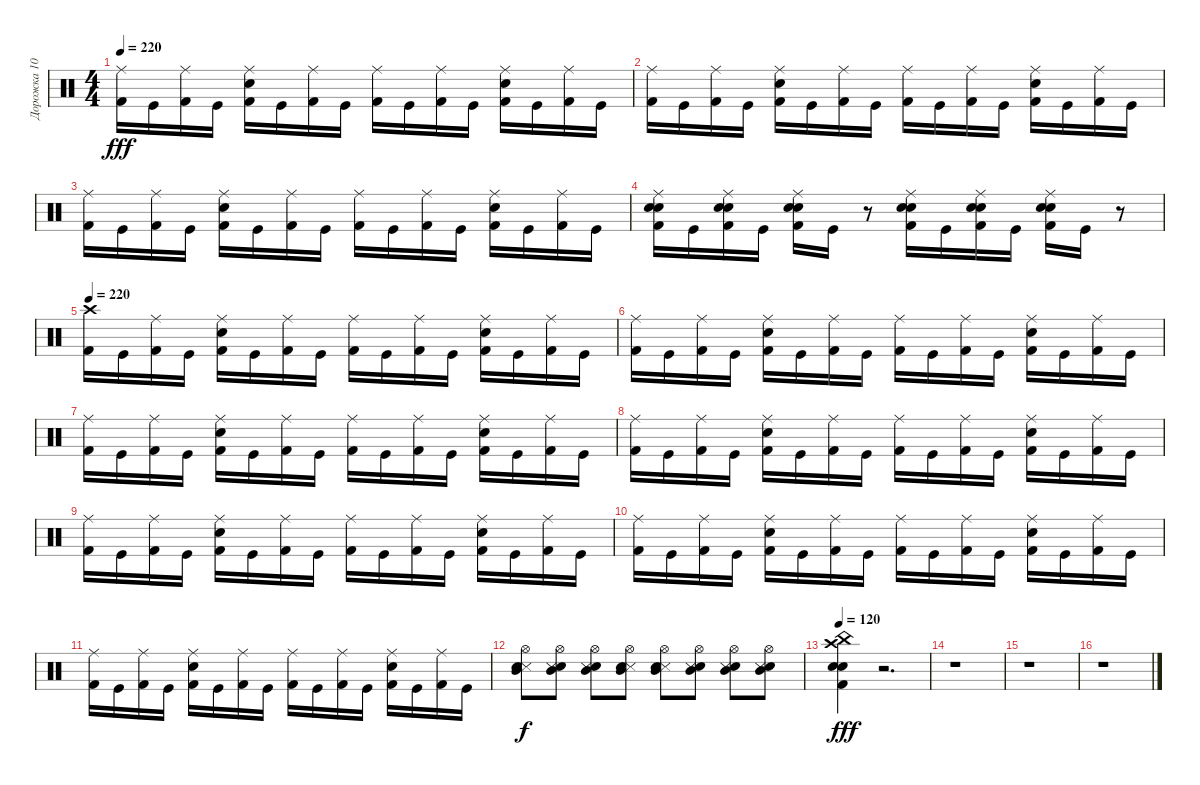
\track ("Дорожка 10" "Дорожка 10") {instrument percussion}
\staff {score}
\articulation defaults
\ts (4 4)
\tempo 220
\clef neutral
\ks c
("Ride (middle)" "Kick (hit) 2").16{dy fff} "Kick (hit)".16 ("Ride (middle)" "Kick (hit) 2").16 "Kick (hit)".16 ("Ride (middle)" "Snare (hit) 2" "Kick (hit) 2").16 "Kick (hit)".16 ("Kick (hit) 2" "Ride (middle)").16 "Kick (hit)".16 ("Kick (hit) 2" "Ride (middle)").16 "Kick (hit)".16 ("Ride (middle)" "Kick (hit) 2").16 "Kick (hit)".16 ("Ride (middle)" "Kick (hit) 2" "Snare (hit) 2").16 "Kick (hit)".16 ("Ride (middle)" "Kick (hit) 2").16 "Kick (hit)".16 |
("Ride (middle)" "Kick (hit) 2").16 "Kick (hit)".16 ("Ride (middle)" "Kick (hit) 2").16 "Kick (hit)".16 ("Snare (hit) 2" "Kick (hit) 2" "Ride (middle)").16 "Kick (hit)".16 ("Kick (hit) 2" "Ride (middle)").16 "Kick (hit)".16 ("Kick (hit) 2" "Ride (middle)").16 "Kick (hit)".16 ("Kick (hit) 2" "Ride (middle)").16 "Kick (hit)".16 ("Snare (hit) 2" "Ride (middle)" "Kick (hit) 2").16 "Kick (hit)".16 ("Ride (middle)" "Kick (hit) 2").16 "Kick (hit)".16 |
("Kick (hit) 2" "Ride (middle)").16 "Kick (hit)".16 ("Ride (middle)" "Kick (hit) 2").16 "Kick (hit)".16 ("Ride (middle)" "Kick (hit) 2" "Snare (hit) 2").16 "Kick (hit)".16 ("Kick (hit) 2" "Ride (middle)").16 "Kick (hit)".16 ("Kick (hit) 2" "Ride (middle)").16 "Kick (hit)".16 ("Kick (hit) 2" "Ride (middle)").16 "Kick (hit)".16 ("Ride (middle)" "Snare (hit) 2" "Kick (hit) 2").16 "Kick (hit)".16 ("Kick (hit) 2" "Ride (middle)").16 "Kick (hit)".16 |
("Ride (middle)" "Electric Snare (hit)" "Snare (hit) 2" "Kick (hit) 2").16 "Kick (hit)".16 ("Ride (middle)" "Snare (hit) 2" "Electric Snare (hit)" "Kick (hit) 2").16 "Kick (hit)".16 ("Ride (middle)" "Electric Snare (hit)" "Snare (hit) 2" "Kick (hit) 2").16 "Kick (hit)".16 r.8 ("Kick (hit) 2" "Electric Snare (hit)" "Snare (hit) 2" "Ride (middle)").16 "Kick (hit)".16 ("Ride (middle)" "Kick (hit) 2" "Electric Snare (hit)" "Snare (hit) 2").16 "Kick (hit)".16 ("Kick (hit) 2" "Snare (hit) 2" "Electric Snare (hit)" "Ride (middle)").16 "Kick (hit)".16 r.8 |
\tempo 220
("Crash high (hit)" "Kick (hit) 2").16 "Kick (hit)".16 ("Ride (middle)" "Kick (hit) 2").16 "Kick (hit)".16 ("Kick (hit) 2" "Snare (hit) 2" "Ride (middle)").16 "Kick (hit)".16 ("Kick (hit) 2" "Ride (middle)").16 "Kick (hit)".16 ("Ride (middle)" "Kick (hit) 2").16 "Kick (hit)".16 ("Ride (middle)" "Kick (hit) 2").16 "Kick (hit)".16 ("Kick (hit) 2" "Snare (hit) 2" "Ride (middle)").16 "Kick (hit)".16 ("Ride (middle)" "Kick (hit) 2").16 "Kick (hit)".16 |
("Kick (hit) 2" "Ride (middle)").16 "Kick (hit)".16 ("Ride (middle)" "Kick (hit) 2").16 "Kick (hit)".16 ("Kick (hit) 2" "Snare (hit) 2" "Ride (middle)").16 "Kick (hit)".16 ("Ride (middle)" "Kick (hit) 2").16 "Kick (hit)".16 ("Kick (hit) 2" "Ride (middle)").16 "Kick (hit)".16 ("Kick (hit) 2" "Ride (middle)").16 "Kick (hit)".16 ("Snare (hit) 2" "Ride (middle)" "Kick (hit) 2").16 "Kick (hit)".16 ("Kick (hit) 2" "Ride (middle)").16 "Kick (hit)".16 |
("Ride (middle)" "Kick (hit) 2").16 "Kick (hit)".16 ("Ride (middle)" "Kick (hit) 2").16 "Kick (hit)".16 ("Snare (hit) 2" "Kick (hit) 2" "Ride (middle)").16 "Kick (hit)".16 ("Kick (hit) 2" "Ride (middle)").16 "Kick (hit)".16 ("Ride (middle)" "Kick (hit) 2").16 "Kick (hit)".16 ("Kick (hit) 2" "Ride (middle)").16 "Kick (hit)".16 ("Kick (hit) 2" "Ride (middle)" "Snare (hit) 2").16 "Kick (hit)".16 ("Kick (hit) 2" "Ride (middle)").16 "Kick (hit)".16 |
("Ride (middle)" "Kick (hit) 2").16 "Kick (hit)".16 ("Kick (hit) 2" "Ride (middle)").16 "Kick (hit)".16 ("Snare (hit) 2" "Ride (middle)" "Kick (hit) 2").16 "Kick (hit)".16 ("Kick (hit) 2" "Ride (middle)").16 "Kick (hit)".16 ("Kick (hit) 2" "Ride (middle)").16 "Kick (hit)".16 ("Kick (hit) 2" "Ride (middle)").16 "Kick (hit)".16 ("Snare (hit) 2" "Ride (middle)" "Kick (hit) 2").16 "Kick (hit)".16 ("Kick (hit) 2" "Ride (middle)").16 "Kick (hit)".16 |
("Ride (middle)" "Kick (hit) 2").16 "Kick (hit)".16 ("Kick (hit) 2" "Ride (middle)").16 "Kick (hit)".16 ("Ride (middle)" "Kick (hit) 2" "Snare (hit) 2").16 "Kick (hit)".16 ("Ride (middle)" "Kick (hit) 2").16 "Kick (hit)".16 ("Kick (hit) 2" "Ride (middle)").16 "Kick (hit)".16 ("Kick (hit) 2" "Ride (middle)").16 "Kick (hit)".16 ("Snare (hit) 2" "Kick (hit) 2" "Ride (middle)").16 "Kick (hit)".16 ("Ride (middle)" "Kick (hit) 2").16 "Kick (hit)".16 |
("Ride (middle)" "Kick (hit) 2").16 "Kick (hit)".16 ("Kick (hit) 2" "Ride (middle)").16 "Kick (hit)".16 ("Kick (hit) 2" "Snare (hit) 2" "Ride (middle)").16 "Kick (hit)".16 ("Kick (hit) 2" "Ride (middle)").16 "Kick (hit)".16 ("Ride (middle)" "Kick (hit) 2").16 "Kick (hit)".16 ("Kick (hit) 2" "Ride (middle)").16 "Kick (hit)".16 ("Ride (middle)" "Snare (hit) 2" "Kick (hit) 2").16 "Kick (hit)".16 ("Kick (hit) 2" "Ride (middle)").16 "Kick (hit)".16 |
("Kick (hit) 2" "Ride (middle)").16 "Kick (hit)".16 ("Ride (middle)" "Kick (hit) 2").16 "Kick (hit)".16 ("Ride (middle)" "Kick (hit) 2" "Snare (hit) 2").16 "Kick (hit)".16 ("Ride (middle)" "Kick (hit) 2").16 "Kick (hit)".16 ("Ride (middle)" "Kick (hit) 2").16 "Kick (hit)".16 ("Kick (hit) 2" "Ride (middle)").16 "Kick (hit)".16 ("Ride (middle)" "Kick (hit) 2" "Snare (hit) 2").16 "Kick (hit)".16 ("Kick (hit) 2" "Ride (middle)").16 "Kick (hit)".16 |
("Mid Tom (hit)" "Snare (side stick) 3" "Hi-Hat (open)" "Snare (hit) 2").8{dy f} ("Hi-Hat (open)" "Snare (hit) 2" "Snare (side stick) 3" "Mid Tom (hit)").8 ("Hi-Hat (open)" "Snare (hit) 2" "Mid Tom (hit)" "Snare (side stick) 3").8 ("Mid Tom (hit)" "Hi-Hat (open)" "Snare (side stick) 3" "Snare (hit) 2").8 ("Hi-Hat (open)" "Mid Tom (hit)" "Snare (side stick) 3" "Snare (hit) 2").8 ("Snare (hit) 2" "Snare (side stick) 3" "Hi-Hat (open)" "Mid Tom (hit)").8 ("Hi-Hat (open)" "Mid Tom (hit)" "Snare (hit) 2" "Snare (side stick) 3").8 ("Hi-Hat (open)" "Snare (hit) 2" "Snare (side stick) 3" "Mid Tom (hit)").8 |
\tempo 120
("Kick (hit) 2" "Crash high (hit)" "Electric Snare (hit)" "China (hit)" "Snare (hit) 2").4{dy fff} r.2{d} |
r.1 |
r.1 |
r.1
